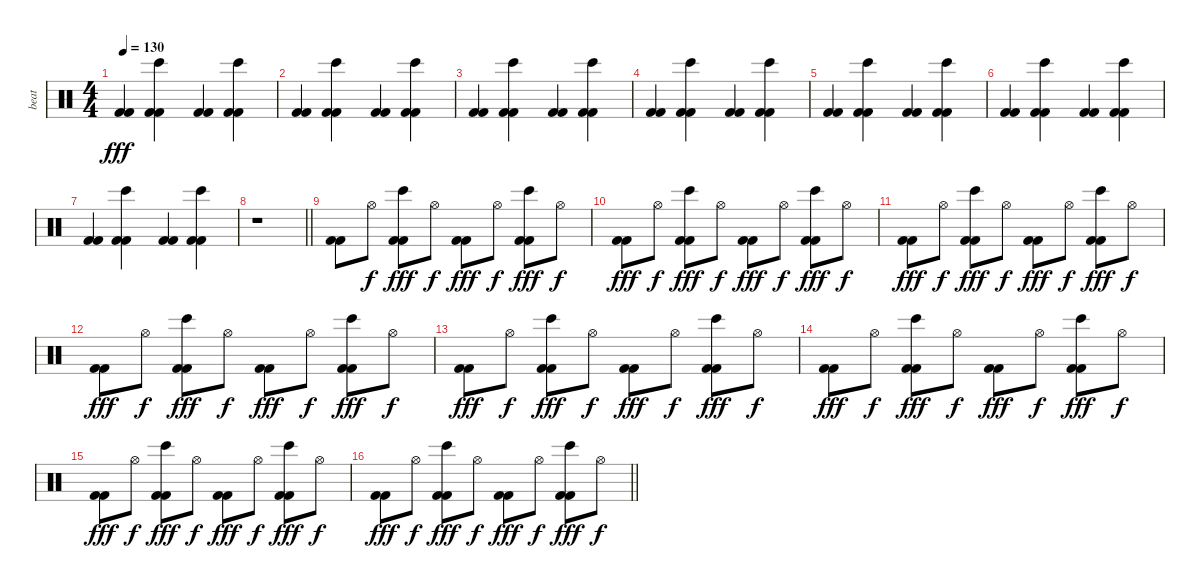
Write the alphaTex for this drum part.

\track ("beat" "beat") {instrument percussion}
\staff {score}
\articulation defaults
\ts (4 4)
\tempo 130
\clef neutral
\ks c
("Kick (hit) 2" "Kick (hit) 2").4{dy fff} ("Kick (hit) 2" "Kick (hit) 2" "Bongo High (hit)").4 ("Kick (hit) 2" "Kick (hit) 2").4 ("Kick (hit) 2" "Kick (hit) 2" "Bongo High (hit)").4 |
("Kick (hit) 2" "Kick (hit) 2").4 ("Kick (hit) 2" "Kick (hit) 2" "Bongo High (hit)").4 ("Kick (hit) 2" "Kick (hit) 2").4 ("Kick (hit) 2" "Kick (hit) 2" "Bongo High (hit)").4 |
("Kick (hit) 2" "Kick (hit) 2").4 ("Kick (hit) 2" "Kick (hit) 2" "Bongo High (hit)").4 ("Kick (hit) 2" "Kick (hit) 2").4 ("Kick (hit) 2" "Kick (hit) 2" "Bongo High (hit)").4 |
("Kick (hit) 2" "Kick (hit) 2").4 ("Kick (hit) 2" "Kick (hit) 2" "Bongo High (hit)").4 ("Kick (hit) 2" "Kick (hit) 2").4 ("Kick (hit) 2" "Kick (hit) 2" "Bongo High (hit)").4 |
("Kick (hit) 2" "Kick (hit) 2").4 ("Kick (hit) 2" "Kick (hit) 2" "Bongo High (hit)").4 ("Kick (hit) 2" "Kick (hit) 2").4 ("Kick (hit) 2" "Kick (hit) 2" "Bongo High (hit)").4 |
("Kick (hit) 2" "Kick (hit) 2").4 ("Kick (hit) 2" "Kick (hit) 2" "Bongo High (hit)").4 ("Kick (hit) 2" "Kick (hit) 2").4 ("Kick (hit) 2" "Kick (hit) 2" "Bongo High (hit)").4 |
("Kick (hit) 2" "Kick (hit) 2").4 ("Kick (hit) 2" "Kick (hit) 2" "Bongo High (hit)").4 ("Kick (hit) 2" "Kick (hit) 2").4 ("Kick (hit) 2" "Kick (hit) 2" "Bongo High (hit)").4 |
\barLineRight lightlight
r.1 |
("Kick (hit) 2" "Kick (hit) 2").8 "Hi-Hat (open)".8{dy f} ("Kick (hit) 2" "Kick (hit) 2" "Bongo High (hit)").8{dy fff} "Hi-Hat (open)".8{dy f} ("Kick (hit) 2" "Kick (hit) 2").8{dy fff} "Hi-Hat (open)".8{dy f} ("Kick (hit) 2" "Kick (hit) 2" "Bongo High (hit)").8{dy fff} "Hi-Hat (open)".8{dy f} |
("Kick (hit) 2" "Kick (hit) 2").8{dy fff} "Hi-Hat (open)".8{dy f} ("Kick (hit) 2" "Kick (hit) 2" "Bongo High (hit)").8{dy fff} "Hi-Hat (open)".8{dy f} ("Kick (hit) 2" "Kick (hit) 2").8{dy fff} "Hi-Hat (open)".8{dy f} ("Kick (hit) 2" "Kick (hit) 2" "Bongo High (hit)").8{dy fff} "Hi-Hat (open)".8{dy f} |
("Kick (hit) 2" "Kick (hit) 2").8{dy fff} "Hi-Hat (open)".8{dy f} ("Kick (hit) 2" "Kick (hit) 2" "Bongo High (hit)").8{dy fff} "Hi-Hat (open)".8{dy f} ("Kick (hit) 2" "Kick (hit) 2").8{dy fff} "Hi-Hat (open)".8{dy f} ("Kick (hit) 2" "Kick (hit) 2" "Bongo High (hit)").8{dy fff} "Hi-Hat (open)".8{dy f} |
("Kick (hit) 2" "Kick (hit) 2").8{dy fff} "Hi-Hat (open)".8{dy f} ("Kick (hit) 2" "Kick (hit) 2" "Bongo High (hit)").8{dy fff} "Hi-Hat (open)".8{dy f} ("Kick (hit) 2" "Kick (hit) 2").8{dy fff} "Hi-Hat (open)".8{dy f} ("Kick (hit) 2" "Kick (hit) 2" "Bongo High (hit)").8{dy fff} "Hi-Hat (open)".8{dy f} |
("Kick (hit) 2" "Kick (hit) 2").8{dy fff} "Hi-Hat (open)".8{dy f} ("Kick (hit) 2" "Kick (hit) 2" "Bongo High (hit)").8{dy fff} "Hi-Hat (open)".8{dy f} ("Kick (hit) 2" "Kick (hit) 2").8{dy fff} "Hi-Hat (open)".8{dy f} ("Kick (hit) 2" "Kick (hit) 2" "Bongo High (hit)").8{dy fff} "Hi-Hat (open)".8{dy f} |
("Kick (hit) 2" "Kick (hit) 2").8{dy fff} "Hi-Hat (open)".8{dy f} ("Kick (hit) 2" "Kick (hit) 2" "Bongo High (hit)").8{dy fff} "Hi-Hat (open)".8{dy f} ("Kick (hit) 2" "Kick (hit) 2").8{dy fff} "Hi-Hat (open)".8{dy f} ("Kick (hit) 2" "Kick (hit) 2" "Bongo High (hit)").8{dy fff} "Hi-Hat (open)".8{dy f} |
("Kick (hit) 2" "Kick (hit) 2").8{dy fff} "Hi-Hat (open)".8{dy f} ("Kick (hit) 2" "Kick (hit) 2" "Bongo High (hit)").8{dy fff} "Hi-Hat (open)".8{dy f} ("Kick (hit) 2" "Kick (hit) 2").8{dy fff} "Hi-Hat (open)".8{dy f} ("Kick (hit) 2" "Kick (hit) 2" "Bongo High (hit)").8{dy fff} "Hi-Hat (open)".8{dy f} |
\barLineRight lightlight
("Kick (hit) 2" "Kick (hit) 2").8{dy fff} "Hi-Hat (open)".8{dy f} ("Kick (hit) 2" "Kick (hit) 2" "Bongo High (hit)").8{dy fff} "Hi-Hat (open)".8{dy f} ("Kick (hit) 2" "Kick (hit) 2").8{dy fff} "Hi-Hat (open)".8{dy f} ("Kick (hit) 2" "Kick (hit) 2" "Bongo High (hit)").8{dy fff} "Hi-Hat (open)".8{dy f}
